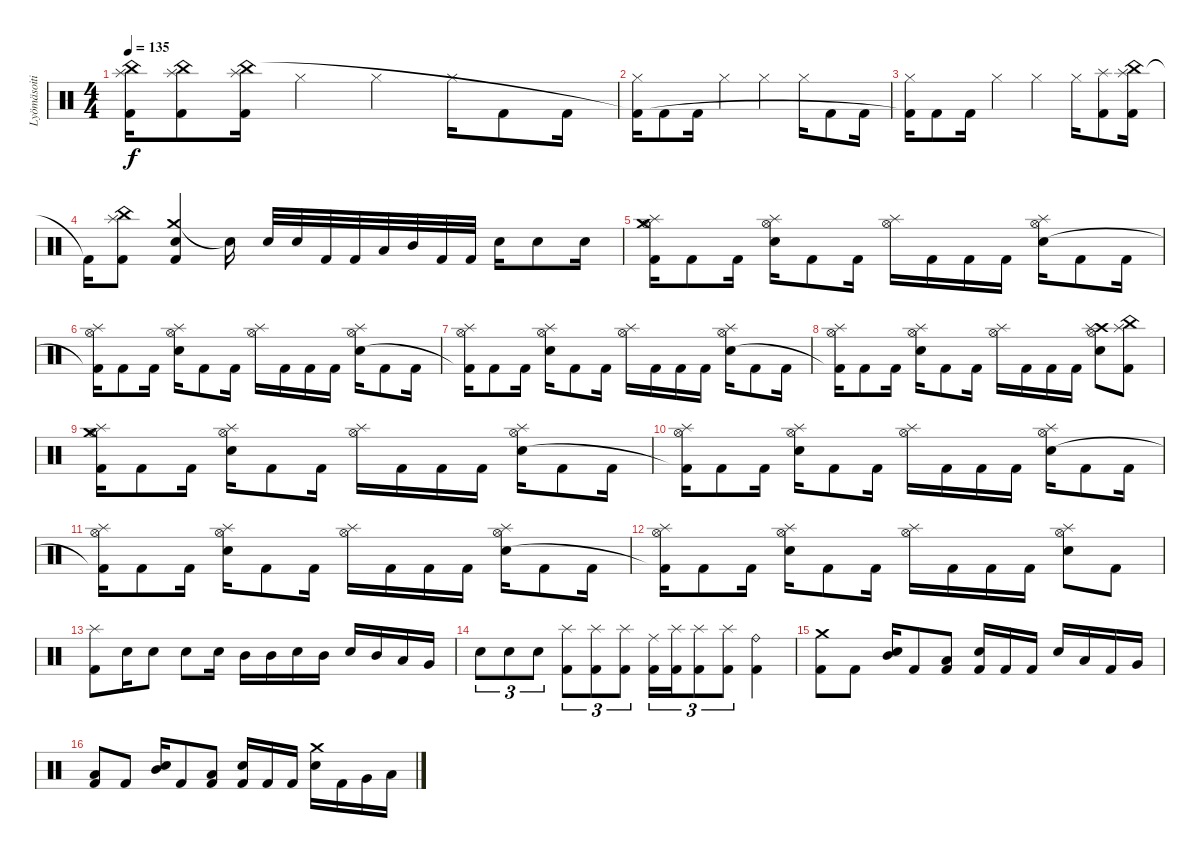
\track ("Lyömäsoitin" "Lyömäsoiti") {instrument percussion}
\staff {score}
\articulation defaults
\ts (4 4)
\tempo 135
\clef neutral
\ks c
("Splash (hit)" "China (hit)" "Kick (hit) 2").16{dy f} ("Splash (hit)" "China (hit)" "Kick (hit) 2").8 ("Splash (hit)" "China (hit)" "Kick (hit) 2").16 "Hi-Hat (closed)".4 "Hi-Hat (closed)".4 "Hi-Hat (closed)".16 "Kick (hit) 2".8 "Kick (hit) 2".16 |
("Hi-Hat (closed)" "Kick (hit) 2"{t}).16 "Kick (hit) 2".8 "Kick (hit) 2".16 "Hi-Hat (closed)".4 "Hi-Hat (closed)".4 "Hi-Hat (closed)".16 "Kick (hit) 2".8 "Kick (hit) 2".16 |
("Hi-Hat (closed)" "Kick (hit) 2"{t}).16 "Kick (hit) 2".8 "Kick (hit) 2".16 "Hi-Hat (closed)".4 "Hi-Hat (closed)".4 "Hi-Hat (closed)".16 ("Splash (hit)" "Kick (hit) 2").8 ("Splash (hit)" "China (hit)" "Kick (hit) 2").16 |
"Kick (hit) 2"{t}.16 ("Splash (hit)" "China (hit)" "Kick (hit) 2").8 ("Crash medium (hit)" "Electric Snare (hit)" "Kick (hit) 2").4 "Snare (hit)"{t}.16 "Electric Snare (hit)".32 "Electric Snare (hit)".32 "Kick (hit) 2".32 "Kick (hit) 2".32 "Low Tom (hit)".32 "Mid Tom (hit)".32 "Kick (hit) 2".32 "Kick (hit) 2".32 "Electric Snare (hit)".16 "Electric Snare (hit)".8 "Electric Snare (hit)".16 |
("Crash medium (hit)" "Hi-Hat (open)" "Splash (hit)" "Kick (hit) 2").16 "Kick (hit) 2".8 "Kick (hit) 2".16 ("Hi-Hat (open)" "Splash (hit)" "Electric Snare (hit)").16 "Kick (hit) 2".8 "Kick (hit) 2".16 ("Hi-Hat (open)" "Splash (hit)").16 "Kick (hit) 2".16 "Kick (hit) 2".16 "Kick (hit) 2".16 ("Hi-Hat (open)" "Splash (hit)" "Electric Snare (hit)").16 "Kick (hit) 2".8 "Kick (hit) 2".16 |
("Hi-Hat (open)" "Splash (hit)" "Kick (hit) 2"{t}).16 "Kick (hit) 2".8 "Kick (hit) 2".16 ("Hi-Hat (open)" "Splash (hit)" "Electric Snare (hit)").16 "Kick (hit) 2".8 "Kick (hit) 2".16 ("Hi-Hat (open)" "Splash (hit)").16 "Kick (hit) 2".16 "Kick (hit) 2".16 "Kick (hit) 2".16 ("Hi-Hat (open)" "Splash (hit)" "Electric Snare (hit)").16 "Kick (hit) 2".8 "Kick (hit) 2".16 |
("Hi-Hat (open)" "Splash (hit)" "Kick (hit) 2"{t}).16 "Kick (hit) 2".8 "Kick (hit) 2".16 ("Hi-Hat (open)" "Splash (hit)" "Electric Snare (hit)").16 "Kick (hit) 2".8 "Kick (hit) 2".16 ("Hi-Hat (open)" "Splash (hit)").16 "Kick (hit) 2".16 "Kick (hit) 2".16 "Kick (hit) 2".16 ("Hi-Hat (open)" "Splash (hit)" "Electric Snare (hit)").16 "Kick (hit) 2".8 "Kick (hit) 2".16 |
("Hi-Hat (open)" "Splash (hit)" "Kick (hit) 2"{t}).16 "Kick (hit) 2".8 "Kick (hit) 2".16 ("Hi-Hat (open)" "Splash (hit)" "Electric Snare (hit)").16 "Kick (hit) 2".8 "Kick (hit) 2".16 ("Hi-Hat (open)" "Splash (hit)").16 "Kick (hit) 2".16 "Kick (hit) 2".16 "Kick (hit) 2".16 ("Crash high (hit)" "Hi-Hat (open)" "Splash (hit)" "Electric Snare (hit)").8 ("Splash (hit)" "China (hit)" "Kick (hit) 2").8 |
("Crash medium (hit)" "Hi-Hat (open)" "Splash (hit)" "Kick (hit) 2").16 "Kick (hit) 2".8 "Kick (hit) 2".16 ("Hi-Hat (open)" "Splash (hit)" "Electric Snare (hit)").16 "Kick (hit) 2".8 "Kick (hit) 2".16 ("Hi-Hat (open)" "Splash (hit)").16 "Kick (hit) 2".16 "Kick (hit) 2".16 "Kick (hit) 2".16 ("Hi-Hat (open)" "Splash (hit)" "Electric Snare (hit)").16 "Kick (hit) 2".8 "Kick (hit) 2".16 |
("Hi-Hat (open)" "Splash (hit)" "Kick (hit) 2"{t}).16 "Kick (hit) 2".8 "Kick (hit) 2".16 ("Hi-Hat (open)" "Splash (hit)" "Electric Snare (hit)").16 "Kick (hit) 2".8 "Kick (hit) 2".16 ("Hi-Hat (open)" "Splash (hit)").16 "Kick (hit) 2".16 "Kick (hit) 2".16 "Kick (hit) 2".16 ("Hi-Hat (open)" "Splash (hit)" "Electric Snare (hit)").16 "Kick (hit) 2".8 "Kick (hit) 2".16 |
("Hi-Hat (open)" "Splash (hit)" "Kick (hit) 2"{t}).16 "Kick (hit) 2".8 "Kick (hit) 2".16 ("Hi-Hat (open)" "Splash (hit)" "Electric Snare (hit)").16 "Kick (hit) 2".8 "Kick (hit) 2".16 ("Hi-Hat (open)" "Splash (hit)").16 "Kick (hit) 2".16 "Kick (hit) 2".16 "Kick (hit) 2".16 ("Hi-Hat (open)" "Splash (hit)" "Electric Snare (hit)").16 "Kick (hit) 2".8 "Kick (hit) 2".16 |
("Hi-Hat (open)" "Splash (hit)" "Kick (hit) 2"{t}).16 "Kick (hit) 2".8 "Kick (hit) 2".16 ("Hi-Hat (open)" "Splash (hit)" "Electric Snare (hit)").16 "Kick (hit) 2".8 "Kick (hit) 2".16 ("Hi-Hat (open)" "Splash (hit)").16 "Kick (hit) 2".16 "Kick (hit) 2".16 "Kick (hit) 2".16 ("Hi-Hat (open)" "Splash (hit)" "Electric Snare (hit)").8 "Kick (hit) 2".8 |
("Splash (hit)" "Kick (hit) 2").8 "Electric Snare (hit)".16 "Electric Snare (hit)".8 "Electric Snare (hit)".8 "Electric Snare (hit)".16 "Mid Tom (hit)".16 "Mid Tom (hit)".16 "Electric Snare (hit)".16 "Mid Tom (hit)".16 "Electric Snare (hit)".16 "Mid Tom (hit)".16 "Low Tom (hit)".16 "Very Low Tom (hit)".16 |
"Electric Snare (hit)".8{tu (3 2)} "Electric Snare (hit)".8{tu (3 2)} "Electric Snare (hit)".8{tu (3 2)} ("Splash (hit)" "Kick (hit) 2").8{tu (3 2)} ("Splash (hit)" "Kick (hit) 2").8{tu (3 2)} ("Splash (hit)" "Kick (hit) 2").8{tu (3 2)} ("Ride (middle)" "Kick (hit) 2").16{tu (3 2)} ("Splash (hit)" "Kick (hit) 2").16{tu (3 2)} ("Splash (hit)" "Kick (hit) 2").8{tu (3 2)} ("Splash (hit)" "Kick (hit) 2").8{tu (3 2)} ("Ride (bell)" "Kick (hit) 2").4 |
("Crash medium (hit)" "Kick (hit) 2").8 "Kick (hit) 2".8 ("Mid Tom (hit)" "Electric Snare (hit)").16 "Kick (hit) 2".8 ("Low Tom (hit)" "Kick (hit) 2").8 ("Electric Snare (hit)" "Kick (hit) 2").16 "Kick (hit) 2".16 "Kick (hit) 2".16 "Electric Snare (hit)".16 "Low Tom (hit)".16 "Kick (hit) 2".16 "Very Low Tom (hit)".16 |
("Low Floor Tom (hit)" "Kick (hit) 2").8 "Kick (hit) 2".8 ("Mid Tom (hit)" "Electric Snare (hit)").16 "Kick (hit) 2".8 ("Low Tom (hit)" "Kick (hit) 2").8 ("Electric Snare (hit)" "Kick (hit) 2").16 "Kick (hit) 2".16 "Kick (hit) 2".16 ("Crash medium (hit)" "Electric Snare (hit)").16 "Kick (hit) 2".16 "Very Low Tom (hit)".16 "Low Floor Tom (hit)".16
